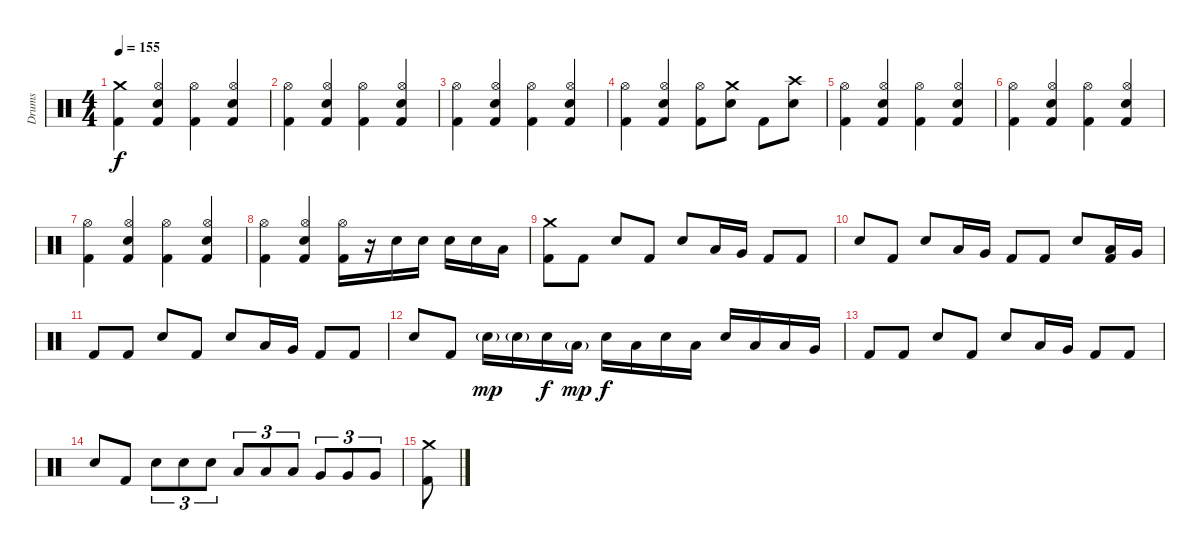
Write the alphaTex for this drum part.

\track ("Drums" "Drums") {instrument percussion}
\staff {score}
\articulation defaults
\ts (4 4)
\tempo 155
\clef neutral
\ks c
("Crash medium (hit)" "Kick (hit) 2").4{dy f} ("Hi-Hat (open)" "Kick (hit) 2" "Electric Snare (hit)").4 ("Hi-Hat (open)" "Kick (hit) 2").4 ("Hi-Hat (open)" "Kick (hit) 2" "Electric Snare (hit)").4 |
("Hi-Hat (open)" "Kick (hit) 2").4 ("Hi-Hat (open)" "Kick (hit) 2" "Electric Snare (hit)").4 ("Hi-Hat (open)" "Kick (hit) 2").4 ("Hi-Hat (open)" "Kick (hit) 2" "Electric Snare (hit)").4 |
("Hi-Hat (open)" "Kick (hit) 2").4 ("Hi-Hat (open)" "Kick (hit) 2" "Electric Snare (hit)").4 ("Hi-Hat (open)" "Kick (hit) 2").4 ("Hi-Hat (open)" "Kick (hit) 2" "Electric Snare (hit)").4 |
("Hi-Hat (open)" "Kick (hit) 2").4 ("Hi-Hat (open)" "Kick (hit) 2" "Electric Snare (hit)").4 ("Hi-Hat (open)" "Kick (hit) 2").8 ("Crash medium (hit)" "Electric Snare (hit)").8 "Kick (hit) 2".8 ("Crash high (hit)" "Electric Snare (hit)").8 |
("Hi-Hat (open)" "Kick (hit) 2").4 ("Hi-Hat (open)" "Kick (hit) 2" "Electric Snare (hit)").4 ("Hi-Hat (open)" "Kick (hit) 2").4 ("Hi-Hat (open)" "Kick (hit) 2" "Electric Snare (hit)").4 |
("Hi-Hat (open)" "Kick (hit) 2").4 ("Hi-Hat (open)" "Kick (hit) 2" "Electric Snare (hit)").4 ("Hi-Hat (open)" "Kick (hit) 2").4 ("Hi-Hat (open)" "Kick (hit) 2" "Electric Snare (hit)").4 |
("Hi-Hat (open)" "Kick (hit) 2").4 ("Hi-Hat (open)" "Kick (hit) 2" "Electric Snare (hit)").4 ("Hi-Hat (open)" "Kick (hit) 2").4 ("Hi-Hat (open)" "Kick (hit) 2" "Electric Snare (hit)").4 |
("Hi-Hat (open)" "Kick (hit) 2").4 ("Hi-Hat (open)" "Kick (hit) 2" "Electric Snare (hit)").4 ("Hi-Hat (open)" "Kick (hit) 2").16 r.16 "Electric Snare (hit)".16 "Electric Snare (hit)".16 "Electric Snare (hit)".16 "Electric Snare (hit)".16 "Low Tom (hit)".16 |
("Kick (hit) 2" "Crash medium (hit)").8 "Kick (hit) 2".8 "Electric Snare (hit)".8 "Kick (hit) 2".8 "Electric Snare (hit)".8 "Low Tom (hit)".16 "Very Low Tom (hit)".16 "Kick (hit) 2".8 "Kick (hit) 2".8 |
"Electric Snare (hit)".8 "Kick (hit) 2".8 "Electric Snare (hit)".8 "Low Tom (hit)".16 "Very Low Tom (hit)".16 "Kick (hit) 2".8 "Kick (hit) 2".8 "Electric Snare (hit)".8 ("Kick (hit) 2" "Low Tom (hit)").16 "Very Low Tom (hit)".16 |
"Kick (hit) 2".8 "Kick (hit) 2".8 "Electric Snare (hit)".8 "Kick (hit) 2".8 "Electric Snare (hit)".8 "Low Tom (hit)".16 "Very Low Tom (hit)".16 "Kick (hit) 2".8 "Kick (hit) 2".8 |
"Electric Snare (hit)".8 "Kick (hit) 2".8 "Electric Snare (hit)"{g}.16{dy mp} "Electric Snare (hit)"{g}.16 "Electric Snare (hit)".16{dy f} "Low Tom (hit)"{g}.16{dy mp} "Electric Snare (hit)".16{dy f} "Low Tom (hit)".16 "Electric Snare (hit)".16 "Low Tom (hit)".16 "Electric Snare (hit)".16 "Low Tom (hit)".16 "Low Tom (hit)".16 "Very Low Tom (hit)".16 |
"Kick (hit) 2".8 "Kick (hit) 2".8 "Electric Snare (hit)".8 "Kick (hit) 2".8 "Electric Snare (hit)".8 "Low Tom (hit)".16 "Very Low Tom (hit)".16 "Kick (hit) 2".8 "Kick (hit) 2".8 |
"Electric Snare (hit)".8 "Kick (hit) 2".8 "Electric Snare (hit)".8{tu (3 2)} "Electric Snare (hit)".8{tu (3 2)} "Electric Snare (hit)".8{tu (3 2)} "Low Tom (hit)".8{tu (3 2)} "Low Tom (hit)".8{tu (3 2)} "Low Tom (hit)".8{tu (3 2)} "Very Low Tom (hit)".8{tu (3 2)} "Very Low Tom (hit)".8{tu (3 2)} "Very Low Tom (hit)".8{tu (3 2)} |
("Crash medium (hit)" "Kick (hit) 2").8
